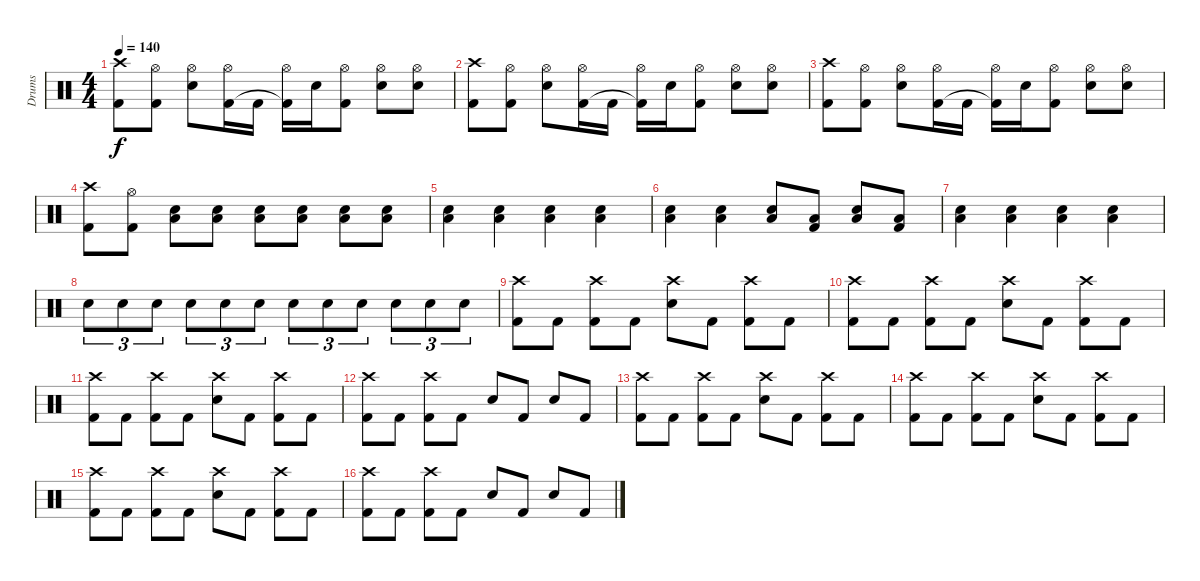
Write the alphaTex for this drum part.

\track ("Drums" "Drums") {instrument percussion}
\staff {score}
\articulation defaults
\ts (4 4)
\tempo 140
\clef neutral
\ks c
("Crash high (hit)" "Kick (hit) 2").8{dy f} ("Hi-Hat (open)" "Kick (hit) 2").8 ("Hi-Hat (open)" "Electric Snare (hit)").8 ("Hi-Hat (open)" "Kick (hit) 2").16 "Kick (hit) 2".16 ("Hi-Hat (open)" "Kick (hit) 2"{t}).16 "Electric Snare (hit)".16 ("Hi-Hat (open)" "Kick (hit) 2").8 ("Hi-Hat (open)" "Electric Snare (hit)").8 ("Hi-Hat (open)" "Electric Snare (hit)").8 |
("Crash high (hit)" "Kick (hit) 2").8 ("Hi-Hat (open)" "Kick (hit) 2").8 ("Hi-Hat (open)" "Electric Snare (hit)").8 ("Hi-Hat (open)" "Kick (hit) 2").16 "Kick (hit) 2".16 ("Hi-Hat (open)" "Kick (hit) 2"{t}).16 "Electric Snare (hit)".16 ("Hi-Hat (open)" "Kick (hit) 2").8 ("Hi-Hat (open)" "Electric Snare (hit)").8 ("Hi-Hat (open)" "Electric Snare (hit)").8 |
("Crash high (hit)" "Kick (hit) 2").8 ("Hi-Hat (open)" "Kick (hit) 2").8 ("Hi-Hat (open)" "Electric Snare (hit)").8 ("Hi-Hat (open)" "Kick (hit) 2").16 "Kick (hit) 2".16 ("Hi-Hat (open)" "Kick (hit) 2"{t}).16 "Electric Snare (hit)".16 ("Hi-Hat (open)" "Kick (hit) 2").8 ("Hi-Hat (open)" "Electric Snare (hit)").8 ("Hi-Hat (open)" "Electric Snare (hit)").8 |
("Crash high (hit)" "Kick (hit) 2").8 ("Hi-Hat (open)" "Kick (hit) 2").8 ("Electric Snare (hit)" "Low Tom (hit)").8 ("Electric Snare (hit)" "Low Tom (hit)").8 ("Electric Snare (hit)" "Low Tom (hit)").8 ("Electric Snare (hit)" "Low Tom (hit)").8 ("Electric Snare (hit)" "Low Tom (hit)").8 ("Electric Snare (hit)" "Low Tom (hit)").8 |
("Electric Snare (hit)" "Low Tom (hit)").4 ("Electric Snare (hit)" "Low Tom (hit)").4 ("Electric Snare (hit)" "Low Tom (hit)").4 ("Electric Snare (hit)" "Low Tom (hit)").4 |
("Electric Snare (hit)" "Low Tom (hit)").4 ("Electric Snare (hit)" "Low Tom (hit)").4 ("Electric Snare (hit)" "Low Tom (hit)").8 ("Low Tom (hit)" "Kick (hit) 2").8 ("Electric Snare (hit)" "Low Tom (hit)").8 ("Low Tom (hit)" "Kick (hit) 2").8 |
("Electric Snare (hit)" "Low Tom (hit)").4 ("Electric Snare (hit)" "Low Tom (hit)").4 ("Electric Snare (hit)" "Low Tom (hit)").4 ("Electric Snare (hit)" "Low Tom (hit)").4 |
"Electric Snare (hit)".8{tu (3 2)} "Electric Snare (hit)".8{tu (3 2)} "Electric Snare (hit)".8{tu (3 2)} "Electric Snare (hit)".8{tu (3 2)} "Electric Snare (hit)".8{tu (3 2)} "Electric Snare (hit)".8{tu (3 2)} "Electric Snare (hit)".8{tu (3 2)} "Electric Snare (hit)".8{tu (3 2)} "Electric Snare (hit)".8{tu (3 2)} "Electric Snare (hit)".8{tu (3 2)} "Electric Snare (hit)".8{tu (3 2)} "Electric Snare (hit)".8{tu (3 2)} |
("Crash high (hit)" "Kick (hit) 2").8 "Kick (hit) 2".8 ("Crash high (hit)" "Kick (hit) 2").8 "Kick (hit) 2".8 ("Crash high (hit)" "Electric Snare (hit)").8 "Kick (hit) 2".8 ("Crash high (hit)" "Kick (hit) 2").8 "Kick (hit) 2".8 |
("Crash high (hit)" "Kick (hit) 2").8 "Kick (hit) 2".8 ("Crash high (hit)" "Kick (hit) 2").8 "Kick (hit) 2".8 ("Crash high (hit)" "Electric Snare (hit)").8 "Kick (hit) 2".8 ("Crash high (hit)" "Kick (hit) 2").8 "Kick (hit) 2".8 |
("Crash high (hit)" "Kick (hit) 2").8 "Kick (hit) 2".8 ("Crash high (hit)" "Kick (hit) 2").8 "Kick (hit) 2".8 ("Crash high (hit)" "Electric Snare (hit)").8 "Kick (hit) 2".8 ("Crash high (hit)" "Kick (hit) 2").8 "Kick (hit) 2".8 |
("Crash high (hit)" "Kick (hit) 2").8 "Kick (hit) 2".8 ("Crash high (hit)" "Kick (hit) 2").8 "Kick (hit) 2".8 "Electric Snare (hit)".8 "Kick (hit) 2".8 "Electric Snare (hit)".8 "Kick (hit) 2".8 |
("Crash high (hit)" "Kick (hit) 2").8 "Kick (hit) 2".8 ("Crash high (hit)" "Kick (hit) 2").8 "Kick (hit) 2".8 ("Crash high (hit)" "Electric Snare (hit)").8 "Kick (hit) 2".8 ("Crash high (hit)" "Kick (hit) 2").8 "Kick (hit) 2".8 |
("Crash high (hit)" "Kick (hit) 2").8 "Kick (hit) 2".8 ("Crash high (hit)" "Kick (hit) 2").8 "Kick (hit) 2".8 ("Crash high (hit)" "Electric Snare (hit)").8 "Kick (hit) 2".8 ("Crash high (hit)" "Kick (hit) 2").8 "Kick (hit) 2".8 |
("Crash high (hit)" "Kick (hit) 2").8 "Kick (hit) 2".8 ("Crash high (hit)" "Kick (hit) 2").8 "Kick (hit) 2".8 ("Crash high (hit)" "Electric Snare (hit)").8 "Kick (hit) 2".8 ("Crash high (hit)" "Kick (hit) 2").8 "Kick (hit) 2".8 |
("Crash high (hit)" "Kick (hit) 2").8 "Kick (hit) 2".8 ("Crash high (hit)" "Kick (hit) 2").8 "Kick (hit) 2".8 "Electric Snare (hit)".8 "Kick (hit) 2".8 "Electric Snare (hit)".8 "Kick (hit) 2".8
